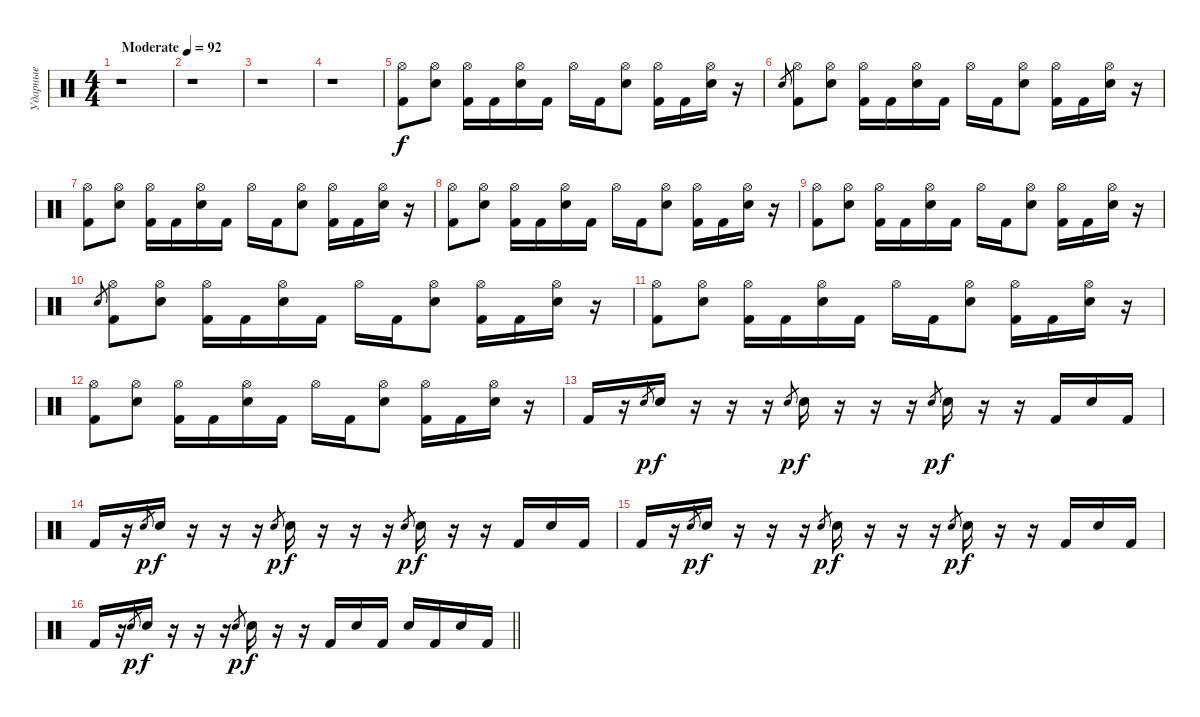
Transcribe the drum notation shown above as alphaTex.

\track ("Ударные" "Ударные") {instrument percussion}
\staff {score}
\articulation defaults
\ts (4 4)
\tempo (92 "Moderate")
\clef neutral
\ks c
r.1{dy f} |
r.1 |
r.1 |
r.1 |
("Hi-Hat (open)" "Kick (hit) 2").8 ("Hi-Hat (open)" "Electric Snare (hit)").8 ("Hi-Hat (open)" "Kick (hit) 2").16 "Kick (hit) 2".16 ("Hi-Hat (open)" "Electric Snare (hit)").16 "Kick (hit) 2".16 "Hi-Hat (open)".16 "Kick (hit) 2".16 ("Hi-Hat (open)" "Electric Snare (hit)").8 ("Hi-Hat (open)" "Kick (hit) 2").16 "Kick (hit) 2".16 ("Hi-Hat (open)" "Electric Snare (hit)").16 r.16 |
"Electric Snare (hit)".8{gr} ("Hi-Hat (open)" "Kick (hit) 2").8 ("Hi-Hat (open)" "Electric Snare (hit)").8 ("Hi-Hat (open)" "Kick (hit) 2").16 "Kick (hit) 2".16 ("Hi-Hat (open)" "Electric Snare (hit)").16 "Kick (hit) 2".16 "Hi-Hat (open)".16 "Kick (hit) 2".16 ("Hi-Hat (open)" "Electric Snare (hit)").8 ("Hi-Hat (open)" "Kick (hit) 2").16 "Kick (hit) 2".16 ("Hi-Hat (open)" "Electric Snare (hit)").16 r.16 |
("Hi-Hat (open)" "Kick (hit) 2").8 ("Hi-Hat (open)" "Electric Snare (hit)").8 ("Hi-Hat (open)" "Kick (hit) 2").16 "Kick (hit) 2".16 ("Hi-Hat (open)" "Electric Snare (hit)").16 "Kick (hit) 2".16 "Hi-Hat (open)".16 "Kick (hit) 2".16 ("Hi-Hat (open)" "Electric Snare (hit)").8 ("Hi-Hat (open)" "Kick (hit) 2").16 "Kick (hit) 2".16 ("Hi-Hat (open)" "Electric Snare (hit)").16 r.16 |
("Hi-Hat (open)" "Kick (hit) 2").8 ("Hi-Hat (open)" "Electric Snare (hit)").8 ("Hi-Hat (open)" "Kick (hit) 2").16 "Kick (hit) 2".16 ("Hi-Hat (open)" "Electric Snare (hit)").16 "Kick (hit) 2".16 "Hi-Hat (open)".16 "Kick (hit) 2".16 ("Hi-Hat (open)" "Electric Snare (hit)").8 ("Hi-Hat (open)" "Kick (hit) 2").16 "Kick (hit) 2".16 ("Hi-Hat (open)" "Electric Snare (hit)").16 r.16 |
("Hi-Hat (open)" "Kick (hit) 2").8 ("Hi-Hat (open)" "Electric Snare (hit)").8 ("Hi-Hat (open)" "Kick (hit) 2").16 "Kick (hit) 2".16 ("Hi-Hat (open)" "Electric Snare (hit)").16 "Kick (hit) 2".16 "Hi-Hat (open)".16 "Kick (hit) 2".16 ("Hi-Hat (open)" "Electric Snare (hit)").8 ("Hi-Hat (open)" "Kick (hit) 2").16 "Kick (hit) 2".16 ("Hi-Hat (open)" "Electric Snare (hit)").16 r.16 |
"Electric Snare (hit)".8{gr} ("Hi-Hat (open)" "Kick (hit) 2").8 ("Hi-Hat (open)" "Electric Snare (hit)").8 ("Hi-Hat (open)" "Kick (hit) 2").16 "Kick (hit) 2".16 ("Hi-Hat (open)" "Electric Snare (hit)").16 "Kick (hit) 2".16 "Hi-Hat (open)".16 "Kick (hit) 2".16 ("Hi-Hat (open)" "Electric Snare (hit)").8 ("Hi-Hat (open)" "Kick (hit) 2").16 "Kick (hit) 2".16 ("Hi-Hat (open)" "Electric Snare (hit)").16 r.16 |
("Hi-Hat (open)" "Kick (hit) 2").8 ("Hi-Hat (open)" "Electric Snare (hit)").8 ("Hi-Hat (open)" "Kick (hit) 2").16 "Kick (hit) 2".16 ("Hi-Hat (open)" "Electric Snare (hit)").16 "Kick (hit) 2".16 "Hi-Hat (open)".16 "Kick (hit) 2".16 ("Hi-Hat (open)" "Electric Snare (hit)").8 ("Hi-Hat (open)" "Kick (hit) 2").16 "Kick (hit) 2".16 ("Hi-Hat (open)" "Electric Snare (hit)").16 r.16 |
("Hi-Hat (open)" "Kick (hit) 2").8 ("Hi-Hat (open)" "Electric Snare (hit)").8 ("Hi-Hat (open)" "Kick (hit) 2").16 "Kick (hit) 2".16 ("Hi-Hat (open)" "Electric Snare (hit)").16 "Kick (hit) 2".16 "Hi-Hat (open)".16 "Kick (hit) 2".16 ("Hi-Hat (open)" "Electric Snare (hit)").8 ("Hi-Hat (open)" "Kick (hit) 2").16 "Kick (hit) 2".16 ("Hi-Hat (open)" "Electric Snare (hit)").16 r.16 |
"Kick (hit) 2".16 r.16 "Electric Snare (hit)".8{gr dy p} "Electric Snare (hit)".16{dy f} r.16 r.16 r.16 "Electric Snare (hit)".8{gr dy p} "Electric Snare (hit)".16{dy f} r.16 r.16 r.16 "Electric Snare (hit)".8{gr dy p} "Electric Snare (hit)".16{dy f} r.16 r.16 "Kick (hit) 2".16 "Electric Snare (hit)".16 "Kick (hit) 2".16 |
"Kick (hit) 2".16 r.16 "Electric Snare (hit)".8{gr dy p} "Electric Snare (hit)".16{dy f} r.16 r.16 r.16 "Electric Snare (hit)".8{gr dy p} "Electric Snare (hit)".16{dy f} r.16 r.16 r.16 "Electric Snare (hit)".8{gr dy p} "Electric Snare (hit)".16{dy f} r.16 r.16 "Kick (hit) 2".16 "Electric Snare (hit)".16 "Kick (hit) 2".16 |
"Kick (hit) 2".16 r.16 "Electric Snare (hit)".8{gr dy p} "Electric Snare (hit)".16{dy f} r.16 r.16 r.16 "Electric Snare (hit)".8{gr dy p} "Electric Snare (hit)".16{dy f} r.16 r.16 r.16 "Electric Snare (hit)".8{gr dy p} "Electric Snare (hit)".16{dy f} r.16 r.16 "Kick (hit) 2".16 "Electric Snare (hit)".16 "Kick (hit) 2".16 |
\barLineRight lightlight "Kick (hit) 2".16
r.16 "Electric Snare (hit)".8{gr dy p} "Electric Snare (hit)".16{dy f} r.16 r.16 r.16 "Electric Snare (hit)".8{gr dy p} "Electric Snare (hit)".16{dy f} r.16 r.16 "Kick (hit) 2".16 "Electric Snare (hit)".16 "Kick (hit) 2".16 "Electric Snare (hit)".16 "Kick (hit) 2".16 "Electric Snare (hit)".16 "Kick (hit) 2".16
